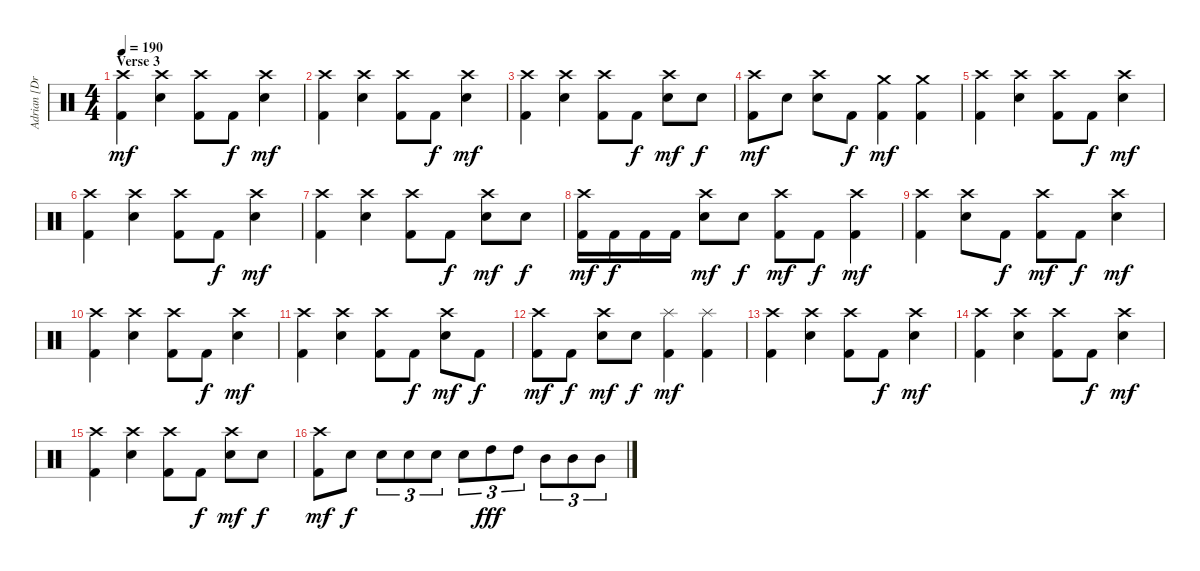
\track ("Adrian [Drums]" "Adrian [Dr") {instrument percussion}
\staff {score}
\articulation defaults
\ts (4 4)
\section ("" "Verse 3")
\tempo 190
\clef neutral
\ks c
("Crash high (hit)" "Kick (hit) 2").4{dy mf} ("Crash high (hit)" "Electric Snare (hit)").4 ("Crash high (hit)" "Kick (hit) 2").8 "Kick (hit) 2".8{dy f} ("Crash high (hit)" "Electric Snare (hit)").4{dy mf} |
("Crash high (hit)" "Kick (hit) 2").4 ("Crash high (hit)" "Electric Snare (hit)").4 ("Crash high (hit)" "Kick (hit) 2").8 "Kick (hit) 2".8{dy f} ("Crash high (hit)" "Electric Snare (hit)").4{dy mf} |
("Crash high (hit)" "Kick (hit) 2").4 ("Crash high (hit)" "Electric Snare (hit)").4 ("Crash high (hit)" "Kick (hit) 2").8 "Kick (hit) 2".8{dy f} ("Crash high (hit)" "Electric Snare (hit)").8{dy mf} "Electric Snare (hit)".8{dy f} |
("Crash high (hit)" "Kick (hit) 2").8{dy mf} "Electric Snare (hit)".8 ("Crash high (hit)" "Electric Snare (hit)").8 "Kick (hit) 2".8{dy f} ("Crash medium (hit)" "Kick (hit) 2").4{dy mf} ("Crash medium (hit)" "Kick (hit) 2").4 |
("Crash high (hit)" "Kick (hit) 2").4 ("Crash high (hit)" "Electric Snare (hit)").4 ("Crash high (hit)" "Kick (hit) 2").8 "Kick (hit) 2".8{dy f} ("Crash high (hit)" "Electric Snare (hit)").4{dy mf} |
("Crash high (hit)" "Kick (hit) 2").4 ("Crash high (hit)" "Electric Snare (hit)").4 ("Crash high (hit)" "Kick (hit) 2").8 "Kick (hit) 2".8{dy f} ("Crash high (hit)" "Electric Snare (hit)").4{dy mf} |
("Crash high (hit)" "Kick (hit) 2").4 ("Crash high (hit)" "Electric Snare (hit)").4 ("Crash high (hit)" "Kick (hit) 2").8 "Kick (hit) 2".8{dy f} ("Crash high (hit)" "Electric Snare (hit)").8{dy mf} "Electric Snare (hit)".8{dy f} |
("Crash high (hit)" "Kick (hit) 2").16{dy mf} "Kick (hit) 2".16{dy f} "Kick (hit) 2".16 "Kick (hit) 2".16 ("Crash high (hit)" "Electric Snare (hit)").8{dy mf} "Electric Snare (hit)".8{dy f} ("Crash high (hit)" "Kick (hit) 2").8{dy mf} "Kick (hit) 2".8{dy f} ("Crash high (hit)" "Kick (hit) 2").4{dy mf} |
("Crash high (hit)" "Kick (hit) 2").4 ("Crash high (hit)" "Electric Snare (hit)").8 "Kick (hit) 2".8{dy f} ("Crash high (hit)" "Kick (hit) 2").8{dy mf} "Kick (hit) 2".8{dy f} ("Crash high (hit)" "Electric Snare (hit)").4{dy mf} |
("Crash high (hit)" "Kick (hit) 2").4 ("Crash high (hit)" "Electric Snare (hit)").4 ("Crash high (hit)" "Kick (hit) 2").8 "Kick (hit) 2".8{dy f} ("Crash high (hit)" "Electric Snare (hit)").4{dy mf} |
("Crash high (hit)" "Kick (hit) 2").4 ("Crash high (hit)" "Electric Snare (hit)").4 ("Crash high (hit)" "Kick (hit) 2").8 "Kick (hit) 2".8{dy f} ("Crash high (hit)" "Electric Snare (hit)").8{dy mf} "Kick (hit) 2".8{dy f} |
("Crash high (hit)" "Kick (hit) 2").8{dy mf} "Kick (hit) 2".8{dy f} ("Crash high (hit)" "Electric Snare (hit)").8{dy mf} "Electric Snare (hit)".8{dy f} ("Splash (hit)" "Kick (hit) 2").4{dy mf} ("Splash (hit)" "Kick (hit) 2").4 |
("Crash high (hit)" "Kick (hit) 2").4 ("Crash high (hit)" "Electric Snare (hit)").4 ("Crash high (hit)" "Kick (hit) 2").8 "Kick (hit) 2".8{dy f} ("Crash high (hit)" "Electric Snare (hit)").4{dy mf} |
("Crash high (hit)" "Kick (hit) 2").4 ("Crash high (hit)" "Electric Snare (hit)").4 ("Crash high (hit)" "Kick (hit) 2").8 "Kick (hit) 2".8{dy f} ("Crash high (hit)" "Electric Snare (hit)").4{dy mf} |
("Crash high (hit)" "Kick (hit) 2").4 ("Crash high (hit)" "Electric Snare (hit)").4 ("Crash high (hit)" "Kick (hit) 2").8 "Kick (hit) 2".8{dy f} ("Crash high (hit)" "Electric Snare (hit)").8{dy mf} "Electric Snare (hit)".8{dy f} |
("Crash high (hit)" "Kick (hit) 2").8{dy mf} "Electric Snare (hit)".8{dy f} "Electric Snare (hit)".8{tu (3 2)} "Electric Snare (hit)".8{tu (3 2)} "Electric Snare (hit)".8{tu (3 2)} "Electric Snare (hit)".8{tu (3 2)} "High Tom (hit)".8{tu (3 2) dy fff} "High Tom (hit)".8{tu (3 2)} "Mid Tom (hit)".8{tu (3 2)} "Mid Tom (hit)".8{tu (3 2)} "Mid Tom (hit)".8{tu (3 2)}
